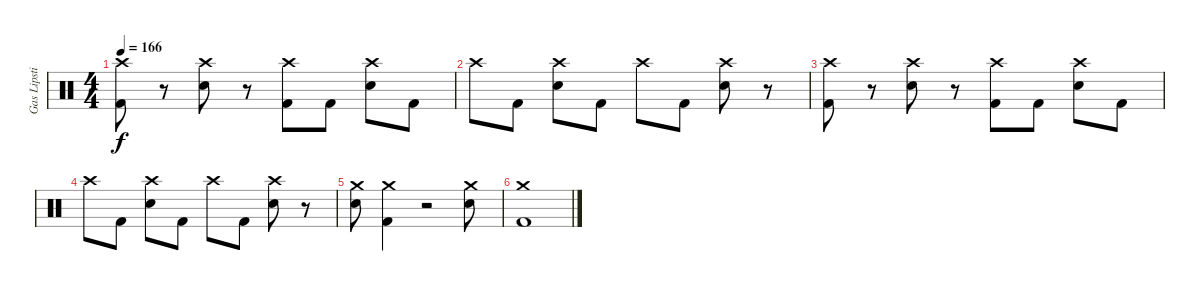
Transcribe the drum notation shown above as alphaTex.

\track ("Gas Lipstick (Drums)" "Gas Lipsti") {instrument percussion}
\staff {score}
\articulation defaults
\ts (4 4)
\tempo 166
\clef neutral
\ks c
("Crash high (hit)" "Kick (hit) 2").8{dy f} r.8 ("Crash high (hit)" "Snare (hit) 2").8 r.8 ("Crash high (hit)" "Kick (hit) 2").8 "Kick (hit) 2".8 ("Crash high (hit)" "Snare (hit) 2").8 "Kick (hit) 2".8 |
"Crash high (hit)".8 "Kick (hit) 2".8 ("Crash high (hit)" "Snare (hit) 2").8 "Kick (hit) 2".8 "Crash high (hit)".8 "Kick (hit) 2".8 ("Crash high (hit)" "Snare (hit) 2").8 r.8 |
("Crash high (hit)" "Kick (hit) 2").8 r.8 ("Crash high (hit)" "Snare (hit) 2").8 r.8 ("Crash high (hit)" "Kick (hit) 2").8 "Kick (hit) 2".8 ("Crash high (hit)" "Snare (hit) 2").8 "Kick (hit) 2".8 |
"Crash high (hit)".8 "Kick (hit) 2".8 ("Crash high (hit)" "Snare (hit) 2").8 "Kick (hit) 2".8 "Crash high (hit)".8 "Kick (hit) 2".8 ("Crash high (hit)" "Snare (hit) 2").8 r.8 |
("Crash medium (hit)" "Snare (hit) 2").8 ("Crash medium (hit)" "Kick (hit) 2").4 r.2 ("Crash medium (hit)" "Snare (hit) 2").8 |
("Crash medium (hit)" "Kick (hit) 2").1
